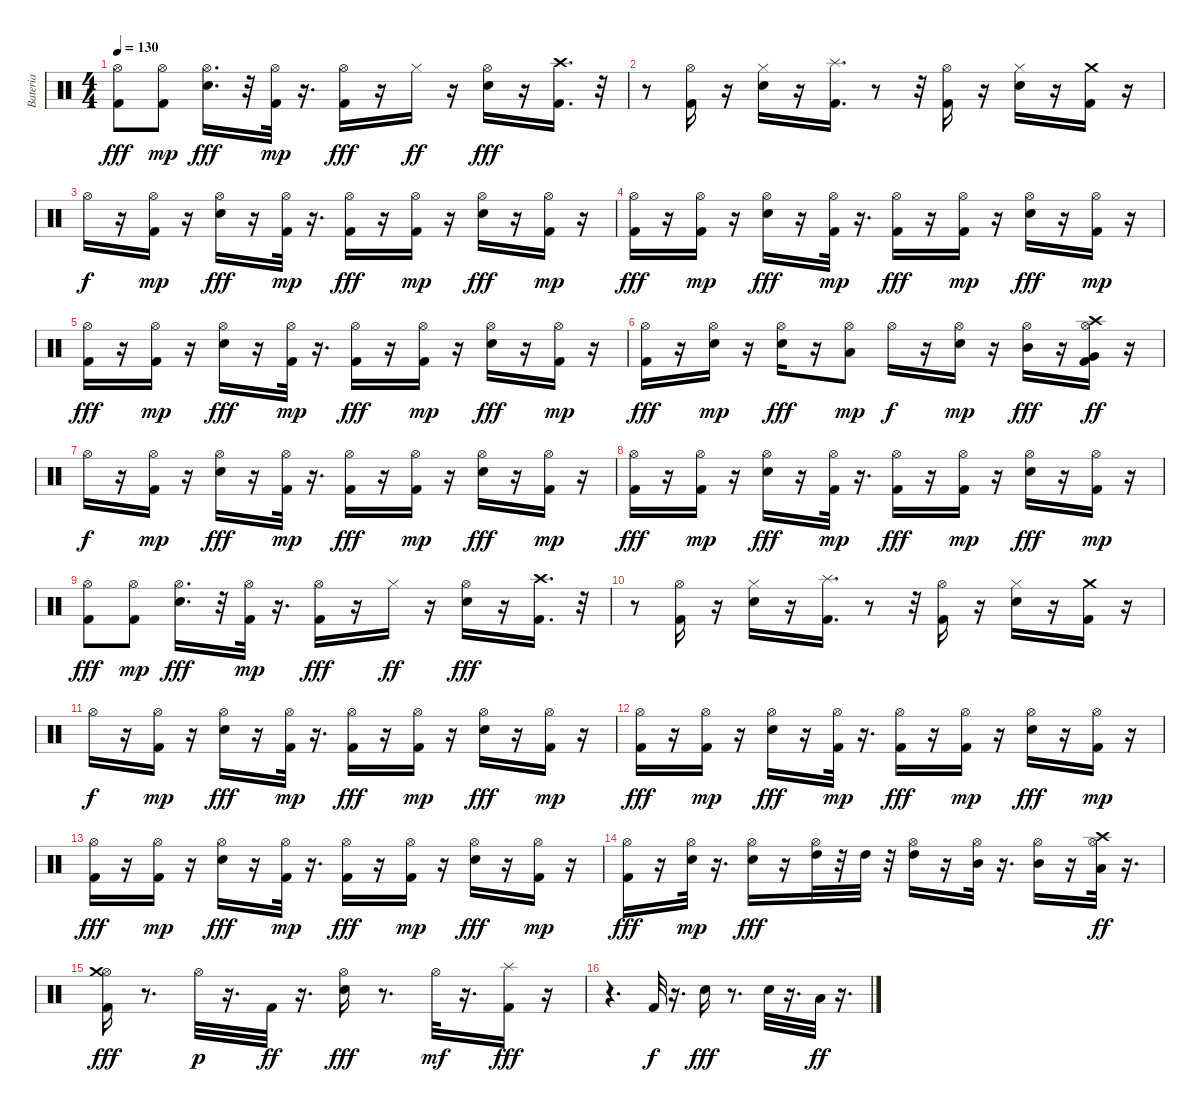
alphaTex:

\track ("Bateria" "Bateria") {instrument percussion}
\staff {score}
\articulation defaults
\ts (4 4)
\tempo 130
\clef neutral
\ks c
("Kick (hit) 2" "Hi-Hat (open)").8{dy fff} ("Kick (hit) 2" "Hi-Hat (open)").8{dy mp} ("Electric Snare (hit)" "Hi-Hat (open)").16{d dy fff} r.32 ("Kick (hit) 2" "Hi-Hat (open)").32{dy mp} r.16{d} ("Kick (hit) 2" "Hi-Hat (open)").16{dy fff} r.16 "Hi-Hat (closed)".16{dy ff} r.16 ("Electric Snare (hit)" "Hi-Hat (open)").16{dy fff} r.16 ("Kick (hit) 2" "Crash high (hit)").16{d} r.32 |
r.8 ("Kick (hit) 2" "Hi-Hat (open)").16 r.16 ("Electric Snare (hit)" "Hi-Hat (closed)").16 r.16 ("Kick (hit) 2" "Splash (hit)").16{d} r.8 r.32 ("Kick (hit) 2" "Hi-Hat (open)").16 r.16 ("Electric Snare (hit)" "Hi-Hat (closed)").16 r.16 ("Kick (hit) 2" "Crash medium (hit)").16 r.16 |
"Hi-Hat (open)".16{dy f} r.16 ("Kick (hit) 2" "Hi-Hat (open)").16{dy mp} r.16 ("Electric Snare (hit)" "Hi-Hat (open)").16{dy fff} r.16 ("Kick (hit) 2" "Hi-Hat (open)").32{dy mp} r.16{d} ("Kick (hit) 2" "Hi-Hat (open)").16{dy fff} r.16 ("Kick (hit) 2" "Hi-Hat (open)").16{dy mp} r.16 ("Electric Snare (hit)" "Hi-Hat (open)").16{dy fff} r.16 ("Kick (hit) 2" "Hi-Hat (open)").16{dy mp} r.16 |
("Kick (hit) 2" "Hi-Hat (open)").16{dy fff} r.16 ("Kick (hit) 2" "Hi-Hat (open)").16{dy mp} r.16 ("Electric Snare (hit)" "Hi-Hat (open)").16{dy fff} r.16 ("Kick (hit) 2" "Hi-Hat (open)").32{dy mp} r.16{d} ("Kick (hit) 2" "Hi-Hat (open)").16{dy fff} r.16 ("Kick (hit) 2" "Hi-Hat (open)").16{dy mp} r.16 ("Electric Snare (hit)" "Hi-Hat (open)").16{dy fff} r.16 ("Kick (hit) 2" "Hi-Hat (open)").16{dy mp} r.16 |
("Kick (hit) 2" "Hi-Hat (open)").16{dy fff} r.16 ("Kick (hit) 2" "Hi-Hat (open)").16{dy mp} r.16 ("Electric Snare (hit)" "Hi-Hat (open)").16{dy fff} r.16 ("Kick (hit) 2" "Hi-Hat (open)").32{dy mp} r.16{d} ("Kick (hit) 2" "Hi-Hat (open)").16{dy fff} r.16 ("Kick (hit) 2" "Hi-Hat (open)").16{dy mp} r.16 ("Electric Snare (hit)" "Hi-Hat (open)").16{dy fff} r.16 ("Kick (hit) 2" "Hi-Hat (open)").16{dy mp} r.16 |
("Kick (hit) 2" "Hi-Hat (open)").16{dy fff} r.16 ("Electric Snare (hit)" "Hi-Hat (open)").16{dy mp} r.16 ("Electric Snare (hit)" "Hi-Hat (open)").16{dy fff} r.16 ("Low Tom (hit)" "Hi-Hat (open)").8{dy mp} "Hi-Hat (open)".16{dy f} r.16 ("Electric Snare (hit)" "Hi-Hat (open)").16{dy mp} r.16 ("Hi-Hat (open)" "Mid Tom (hit)").16{dy fff} r.16 ("Kick (hit) 2" "Very Low Tom (hit)" "Hi-Hat (open)" "Crash high (hit)").16{dy ff} r.16 |
"Hi-Hat (open)".16{dy f} r.16 ("Kick (hit) 2" "Hi-Hat (open)").16{dy mp} r.16 ("Electric Snare (hit)" "Hi-Hat (open)").16{dy fff} r.16 ("Kick (hit) 2" "Hi-Hat (open)").32{dy mp} r.16{d} ("Kick (hit) 2" "Hi-Hat (open)").16{dy fff} r.16 ("Kick (hit) 2" "Hi-Hat (open)").16{dy mp} r.16 ("Electric Snare (hit)" "Hi-Hat (open)").16{dy fff} r.16 ("Kick (hit) 2" "Hi-Hat (open)").16{dy mp} r.16 |
("Kick (hit) 2" "Hi-Hat (open)").16{dy fff} r.16 ("Kick (hit) 2" "Hi-Hat (open)").16{dy mp} r.16 ("Electric Snare (hit)" "Hi-Hat (open)").16{dy fff} r.16 ("Kick (hit) 2" "Hi-Hat (open)").32{dy mp} r.16{d} ("Kick (hit) 2" "Hi-Hat (open)").16{dy fff} r.16 ("Kick (hit) 2" "Hi-Hat (open)").16{dy mp} r.16 ("Electric Snare (hit)" "Hi-Hat (open)").16{dy fff} r.16 ("Kick (hit) 2" "Hi-Hat (open)").16{dy mp} r.16 |
("Kick (hit) 2" "Hi-Hat (open)").8{dy fff} ("Kick (hit) 2" "Hi-Hat (open)").8{dy mp} ("Electric Snare (hit)" "Hi-Hat (open)").16{d dy fff} r.32 ("Kick (hit) 2" "Hi-Hat (open)").32{dy mp} r.16{d} ("Kick (hit) 2" "Hi-Hat (open)").16{dy fff} r.16 "Hi-Hat (closed)".16{dy ff} r.16 ("Electric Snare (hit)" "Hi-Hat (open)").16{dy fff} r.16 ("Kick (hit) 2" "Crash high (hit)").16{d} r.32 |
r.8 ("Kick (hit) 2" "Hi-Hat (open)").16 r.16 ("Electric Snare (hit)" "Hi-Hat (closed)").16 r.16 ("Kick (hit) 2" "Splash (hit)").16{d} r.8 r.32 ("Kick (hit) 2" "Hi-Hat (open)").16 r.16 ("Electric Snare (hit)" "Hi-Hat (closed)").16 r.16 ("Kick (hit) 2" "Crash medium (hit)").16 r.16 |
"Hi-Hat (open)".16{dy f} r.16 ("Kick (hit) 2" "Hi-Hat (open)").16{dy mp} r.16 ("Electric Snare (hit)" "Hi-Hat (open)").16{dy fff} r.16 ("Kick (hit) 2" "Hi-Hat (open)").32{dy mp} r.16{d} ("Kick (hit) 2" "Hi-Hat (open)").16{dy fff} r.16 ("Kick (hit) 2" "Hi-Hat (open)").16{dy mp} r.16 ("Electric Snare (hit)" "Hi-Hat (open)").16{dy fff} r.16 ("Kick (hit) 2" "Hi-Hat (open)").16{dy mp} r.16 |
("Kick (hit) 2" "Hi-Hat (open)").16{dy fff} r.16 ("Kick (hit) 2" "Hi-Hat (open)").16{dy mp} r.16 ("Electric Snare (hit)" "Hi-Hat (open)").16{dy fff} r.16 ("Kick (hit) 2" "Hi-Hat (open)").32{dy mp} r.16{d} ("Kick (hit) 2" "Hi-Hat (open)").16{dy fff} r.16 ("Kick (hit) 2" "Hi-Hat (open)").16{dy mp} r.16 ("Electric Snare (hit)" "Hi-Hat (open)").16{dy fff} r.16 ("Kick (hit) 2" "Hi-Hat (open)").16{dy mp} r.16 |
("Kick (hit) 2" "Hi-Hat (open)").16{dy fff} r.16 ("Kick (hit) 2" "Hi-Hat (open)").16{dy mp} r.16 ("Electric Snare (hit)" "Hi-Hat (open)").16{dy fff} r.16 ("Kick (hit) 2" "Hi-Hat (open)").32{dy mp} r.16{d} ("Kick (hit) 2" "Hi-Hat (open)").16{dy fff} r.16 ("Kick (hit) 2" "Hi-Hat (open)").16{dy mp} r.16 ("Electric Snare (hit)" "Hi-Hat (open)").16{dy fff} r.16 ("Kick (hit) 2" "Hi-Hat (open)").16{dy mp} r.16 |
("Kick (hit) 2" "Hi-Hat (open)").16{dy fff} r.16 ("Electric Snare (hit)" "Hi-Hat (open)").32{dy mp} r.16{d} ("Electric Snare (hit)" "Hi-Hat (open)").16{dy fff} r.16 ("Hi-Hat (open)" "High Tom (hit)").32 r.32 "High Tom (hit)".32 r.32 ("Hi-Hat (open)" "High Tom (hit)").16 r.16 ("Hi-Hat (open)" "Mid Tom (hit)").32 r.16{d} ("Hi-Hat (open)" "Mid Tom (hit)").16 r.16 ("Low Tom (hit)" "Hi-Hat (open)" "Crash high (hit)").32{dy ff} r.16{d} |
("Kick (hit) 2" "Hi-Hat (open)" "Crash medium (hit)").16{dy fff} r.8{d} "Hi-Hat (open)".32{dy p} r.16{d} "Kick (hit) 2".32{dy ff} r.16{d} ("Electric Snare (hit)" "Hi-Hat (open)").16{dy fff} r.8{d} "Hi-Hat (open)".32{dy mf} r.16{d} ("Kick (hit) 2" "Splash (hit)").16{dy fff} r.16 |
r.4{d} "Kick (hit) 2".32{dy f} r.16{d} "Electric Snare (hit)".16{dy fff} r.8{d} "Electric Snare (hit)".32 r.16{d} "Low Tom (hit)".32{dy ff} r.16{d}
